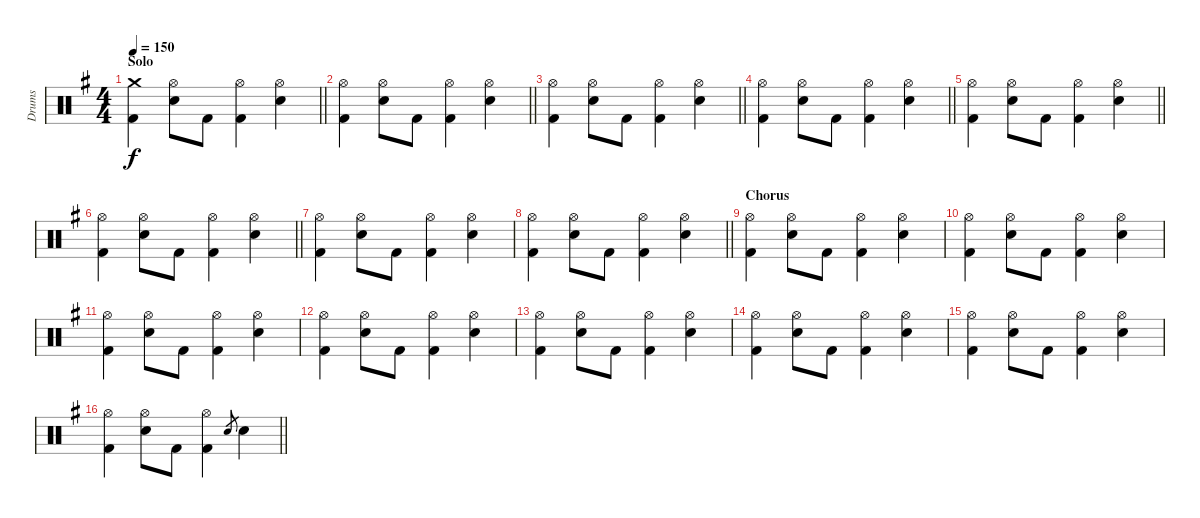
\track ("Drums" "Drums") {instrument percussion}
\staff {score}
\articulation defaults
\ts (4 4)
\section ("" "Solo")
\tempo 150
\clef neutral
\barLineRight lightlight
\ks g
("Crash medium (hit)" "Kick (hit) 2").4{dy f} ("Hi-Hat (open)" "Snare (hit) 2").8 "Kick (hit) 2".8 ("Hi-Hat (open)" "Kick (hit) 2").4 ("Hi-Hat (open)" "Snare (hit) 2").4 |
\barLineRight lightlight
("Hi-Hat (open)" "Kick (hit) 2").4 ("Hi-Hat (open)" "Snare (hit) 2").8 "Kick (hit) 2".8 ("Hi-Hat (open)" "Kick (hit) 2").4 ("Hi-Hat (open)" "Snare (hit) 2").4 |
\barLineRight lightlight
("Hi-Hat (open)" "Kick (hit) 2").4 ("Hi-Hat (open)" "Snare (hit) 2").8 "Kick (hit) 2".8 ("Hi-Hat (open)" "Kick (hit) 2").4 ("Hi-Hat (open)" "Snare (hit) 2").4 |
\barLineRight lightlight
("Hi-Hat (open)" "Kick (hit) 2").4 ("Hi-Hat (open)" "Snare (hit) 2").8 "Kick (hit) 2".8 ("Hi-Hat (open)" "Kick (hit) 2").4 ("Hi-Hat (open)" "Snare (hit) 2").4 |
\barLineRight lightlight
("Hi-Hat (open)" "Kick (hit) 2").4 ("Hi-Hat (open)" "Snare (hit) 2").8 "Kick (hit) 2".8 ("Hi-Hat (open)" "Kick (hit) 2").4 ("Hi-Hat (open)" "Snare (hit) 2").4 |
\barLineRight lightlight
("Hi-Hat (open)" "Kick (hit) 2").4 ("Hi-Hat (open)" "Snare (hit) 2").8 "Kick (hit) 2".8 ("Hi-Hat (open)" "Kick (hit) 2").4 ("Hi-Hat (open)" "Snare (hit) 2").4 |
("Hi-Hat (open)" "Kick (hit) 2").4 ("Hi-Hat (open)" "Snare (hit) 2").8 "Kick (hit) 2".8 ("Hi-Hat (open)" "Kick (hit) 2").4 ("Hi-Hat (open)" "Snare (hit) 2").4 |
\barLineRight lightlight
("Hi-Hat (open)" "Kick (hit) 2").4 ("Hi-Hat (open)" "Snare (hit) 2").8 "Kick (hit) 2".8 ("Hi-Hat (open)" "Kick (hit) 2").4 ("Hi-Hat (open)" "Snare (hit) 2").4 |
\section ("" "Chorus")
("Hi-Hat (open)" "Kick (hit) 2").4 ("Hi-Hat (open)" "Snare (hit) 2").8 "Kick (hit) 2".8 ("Hi-Hat (open)" "Kick (hit) 2").4 ("Hi-Hat (open)" "Snare (hit) 2").4 |
("Hi-Hat (open)" "Kick (hit) 2").4 ("Hi-Hat (open)" "Snare (hit) 2").8 "Kick (hit) 2".8 ("Hi-Hat (open)" "Kick (hit) 2").4 ("Hi-Hat (open)" "Snare (hit) 2").4 |
("Hi-Hat (open)" "Kick (hit) 2").4 ("Hi-Hat (open)" "Snare (hit) 2").8 "Kick (hit) 2".8 ("Hi-Hat (open)" "Kick (hit) 2").4 ("Hi-Hat (open)" "Snare (hit) 2").4 |
("Hi-Hat (open)" "Kick (hit) 2").4 ("Hi-Hat (open)" "Snare (hit) 2").8 "Kick (hit) 2".8 ("Hi-Hat (open)" "Kick (hit) 2").4 ("Hi-Hat (open)" "Snare (hit) 2").4 |
("Hi-Hat (open)" "Kick (hit) 2").4 ("Hi-Hat (open)" "Snare (hit) 2").8 "Kick (hit) 2".8 ("Hi-Hat (open)" "Kick (hit) 2").4 ("Hi-Hat (open)" "Snare (hit) 2").4 |
("Hi-Hat (open)" "Kick (hit) 2").4 ("Hi-Hat (open)" "Snare (hit) 2").8 "Kick (hit) 2".8 ("Hi-Hat (open)" "Kick (hit) 2").4 ("Hi-Hat (open)" "Snare (hit) 2").4 |
("Hi-Hat (open)" "Kick (hit) 2").4 ("Hi-Hat (open)" "Snare (hit) 2").8 "Kick (hit) 2".8 ("Hi-Hat (open)" "Kick (hit) 2").4 ("Hi-Hat (open)" "Snare (hit) 2").4 |
\barLineRight lightlight
("Hi-Hat (open)" "Kick (hit) 2").4 ("Hi-Hat (open)" "Snare (hit) 2").8 "Kick (hit) 2".8 ("Hi-Hat (open)" "Kick (hit) 2").4 "Snare (hit) 2".8{gr} "Snare (hit) 2".4
